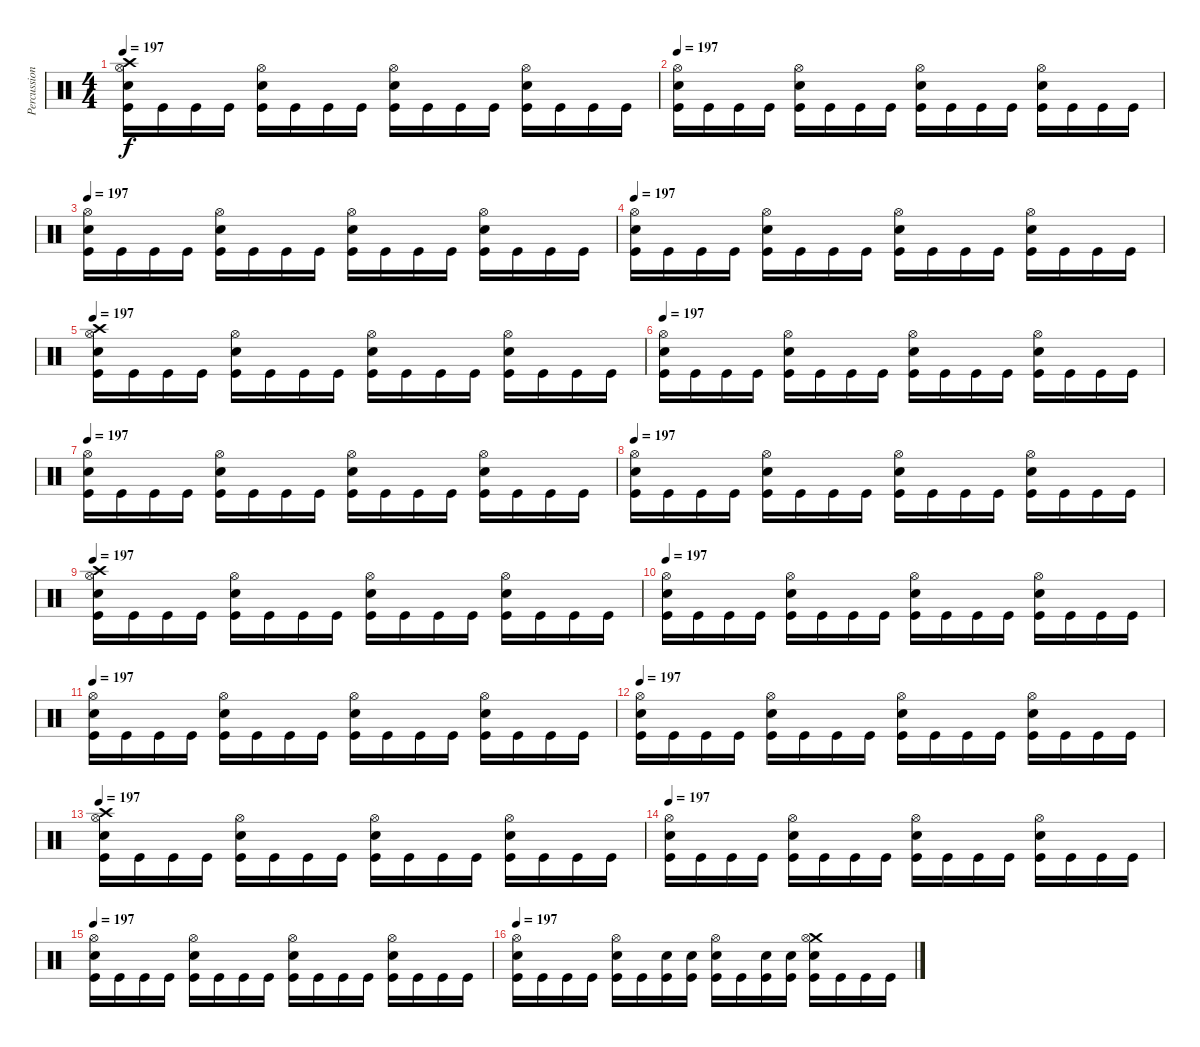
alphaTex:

\track ("Percussion" "Percussion") {instrument percussion}
\staff {score}
\articulation defaults
\ts (4 4)
\tempo 197
\clef neutral
\ks c
("Crash high (hit)" "Hi-Hat (open)" "Electric Snare (hit)" "Kick (hit)").16{dy f} "Kick (hit)".16 "Kick (hit)".16 "Kick (hit)".16 ("Hi-Hat (open)" "Electric Snare (hit)" "Kick (hit)").16 "Kick (hit)".16 "Kick (hit)".16 "Kick (hit)".16 ("Hi-Hat (open)" "Electric Snare (hit)" "Kick (hit)").16 "Kick (hit)".16 "Kick (hit)".16 "Kick (hit)".16 ("Hi-Hat (open)" "Electric Snare (hit)" "Kick (hit)").16 "Kick (hit)".16 "Kick (hit)".16 "Kick (hit)".16 |
\tempo 197
("Hi-Hat (open)" "Electric Snare (hit)" "Kick (hit)").16 "Kick (hit)".16 "Kick (hit)".16 "Kick (hit)".16 ("Hi-Hat (open)" "Electric Snare (hit)" "Kick (hit)").16 "Kick (hit)".16 "Kick (hit)".16 "Kick (hit)".16 ("Hi-Hat (open)" "Electric Snare (hit)" "Kick (hit)").16 "Kick (hit)".16 "Kick (hit)".16 "Kick (hit)".16 ("Hi-Hat (open)" "Electric Snare (hit)" "Kick (hit)").16 "Kick (hit)".16 "Kick (hit)".16 "Kick (hit)".16 |
\tempo 197
("Hi-Hat (open)" "Electric Snare (hit)" "Kick (hit)").16 "Kick (hit)".16 "Kick (hit)".16 "Kick (hit)".16 ("Hi-Hat (open)" "Electric Snare (hit)" "Kick (hit)").16 "Kick (hit)".16 "Kick (hit)".16 "Kick (hit)".16 ("Hi-Hat (open)" "Electric Snare (hit)" "Kick (hit)").16 "Kick (hit)".16 "Kick (hit)".16 "Kick (hit)".16 ("Hi-Hat (open)" "Electric Snare (hit)" "Kick (hit)").16 "Kick (hit)".16 "Kick (hit)".16 "Kick (hit)".16 |
\tempo 197
("Hi-Hat (open)" "Electric Snare (hit)" "Kick (hit)").16 "Kick (hit)".16 "Kick (hit)".16 "Kick (hit)".16 ("Hi-Hat (open)" "Electric Snare (hit)" "Kick (hit)").16 "Kick (hit)".16 "Kick (hit)".16 "Kick (hit)".16 ("Hi-Hat (open)" "Electric Snare (hit)" "Kick (hit)").16 "Kick (hit)".16 "Kick (hit)".16 "Kick (hit)".16 ("Hi-Hat (open)" "Electric Snare (hit)" "Kick (hit)").16 "Kick (hit)".16 "Kick (hit)".16 "Kick (hit)".16 |
\tempo 197
("Crash high (hit)" "Hi-Hat (open)" "Electric Snare (hit)" "Kick (hit)").16 "Kick (hit)".16 "Kick (hit)".16 "Kick (hit)".16 ("Hi-Hat (open)" "Electric Snare (hit)" "Kick (hit)").16 "Kick (hit)".16 "Kick (hit)".16 "Kick (hit)".16 ("Hi-Hat (open)" "Electric Snare (hit)" "Kick (hit)").16 "Kick (hit)".16 "Kick (hit)".16 "Kick (hit)".16 ("Hi-Hat (open)" "Electric Snare (hit)" "Kick (hit)").16 "Kick (hit)".16 "Kick (hit)".16 "Kick (hit)".16 |
\tempo 197
("Hi-Hat (open)" "Electric Snare (hit)" "Kick (hit)").16 "Kick (hit)".16 "Kick (hit)".16 "Kick (hit)".16 ("Hi-Hat (open)" "Electric Snare (hit)" "Kick (hit)").16 "Kick (hit)".16 "Kick (hit)".16 "Kick (hit)".16 ("Hi-Hat (open)" "Electric Snare (hit)" "Kick (hit)").16 "Kick (hit)".16 "Kick (hit)".16 "Kick (hit)".16 ("Hi-Hat (open)" "Electric Snare (hit)" "Kick (hit)").16 "Kick (hit)".16 "Kick (hit)".16 "Kick (hit)".16 |
\tempo 197
("Hi-Hat (open)" "Electric Snare (hit)" "Kick (hit)").16 "Kick (hit)".16 "Kick (hit)".16 "Kick (hit)".16 ("Hi-Hat (open)" "Electric Snare (hit)" "Kick (hit)").16 "Kick (hit)".16 "Kick (hit)".16 "Kick (hit)".16 ("Hi-Hat (open)" "Electric Snare (hit)" "Kick (hit)").16 "Kick (hit)".16 "Kick (hit)".16 "Kick (hit)".16 ("Hi-Hat (open)" "Electric Snare (hit)" "Kick (hit)").16 "Kick (hit)".16 "Kick (hit)".16 "Kick (hit)".16 |
\tempo 197
("Hi-Hat (open)" "Electric Snare (hit)" "Kick (hit)").16 "Kick (hit)".16 "Kick (hit)".16 "Kick (hit)".16 ("Hi-Hat (open)" "Electric Snare (hit)" "Kick (hit)").16 "Kick (hit)".16 "Kick (hit)".16 "Kick (hit)".16 ("Hi-Hat (open)" "Electric Snare (hit)" "Kick (hit)").16 "Kick (hit)".16 "Kick (hit)".16 "Kick (hit)".16 ("Hi-Hat (open)" "Electric Snare (hit)" "Kick (hit)").16 "Kick (hit)".16 "Kick (hit)".16 "Kick (hit)".16 |
\tempo 197
("Crash high (hit)" "Hi-Hat (open)" "Electric Snare (hit)" "Kick (hit)").16 "Kick (hit)".16 "Kick (hit)".16 "Kick (hit)".16 ("Hi-Hat (open)" "Electric Snare (hit)" "Kick (hit)").16 "Kick (hit)".16 "Kick (hit)".16 "Kick (hit)".16 ("Hi-Hat (open)" "Electric Snare (hit)" "Kick (hit)").16 "Kick (hit)".16 "Kick (hit)".16 "Kick (hit)".16 ("Hi-Hat (open)" "Electric Snare (hit)" "Kick (hit)").16 "Kick (hit)".16 "Kick (hit)".16 "Kick (hit)".16 |
\tempo 197
("Hi-Hat (open)" "Electric Snare (hit)" "Kick (hit)").16 "Kick (hit)".16 "Kick (hit)".16 "Kick (hit)".16 ("Hi-Hat (open)" "Electric Snare (hit)" "Kick (hit)").16 "Kick (hit)".16 "Kick (hit)".16 "Kick (hit)".16 ("Hi-Hat (open)" "Electric Snare (hit)" "Kick (hit)").16 "Kick (hit)".16 "Kick (hit)".16 "Kick (hit)".16 ("Hi-Hat (open)" "Electric Snare (hit)" "Kick (hit)").16 "Kick (hit)".16 "Kick (hit)".16 "Kick (hit)".16 |
\tempo 197
("Hi-Hat (open)" "Electric Snare (hit)" "Kick (hit)").16 "Kick (hit)".16 "Kick (hit)".16 "Kick (hit)".16 ("Hi-Hat (open)" "Electric Snare (hit)" "Kick (hit)").16 "Kick (hit)".16 "Kick (hit)".16 "Kick (hit)".16 ("Hi-Hat (open)" "Electric Snare (hit)" "Kick (hit)").16 "Kick (hit)".16 "Kick (hit)".16 "Kick (hit)".16 ("Hi-Hat (open)" "Electric Snare (hit)" "Kick (hit)").16 "Kick (hit)".16 "Kick (hit)".16 "Kick (hit)".16 |
\tempo 197
("Hi-Hat (open)" "Electric Snare (hit)" "Kick (hit)").16 "Kick (hit)".16 "Kick (hit)".16 "Kick (hit)".16 ("Hi-Hat (open)" "Electric Snare (hit)" "Kick (hit)").16 "Kick (hit)".16 "Kick (hit)".16 "Kick (hit)".16 ("Hi-Hat (open)" "Electric Snare (hit)" "Kick (hit)").16 "Kick (hit)".16 "Kick (hit)".16 "Kick (hit)".16 ("Hi-Hat (open)" "Electric Snare (hit)" "Kick (hit)").16 "Kick (hit)".16 "Kick (hit)".16 "Kick (hit)".16 |
\tempo 197
("Crash high (hit)" "Hi-Hat (open)" "Electric Snare (hit)" "Kick (hit)").16 "Kick (hit)".16 "Kick (hit)".16 "Kick (hit)".16 ("Hi-Hat (open)" "Electric Snare (hit)" "Kick (hit)").16 "Kick (hit)".16 "Kick (hit)".16 "Kick (hit)".16 ("Hi-Hat (open)" "Electric Snare (hit)" "Kick (hit)").16 "Kick (hit)".16 "Kick (hit)".16 "Kick (hit)".16 ("Hi-Hat (open)" "Electric Snare (hit)" "Kick (hit)").16 "Kick (hit)".16 "Kick (hit)".16 "Kick (hit)".16 |
\tempo 197
("Hi-Hat (open)" "Electric Snare (hit)" "Kick (hit)").16 "Kick (hit)".16 "Kick (hit)".16 "Kick (hit)".16 ("Hi-Hat (open)" "Electric Snare (hit)" "Kick (hit)").16 "Kick (hit)".16 "Kick (hit)".16 "Kick (hit)".16 ("Hi-Hat (open)" "Electric Snare (hit)" "Kick (hit)").16 "Kick (hit)".16 "Kick (hit)".16 "Kick (hit)".16 ("Hi-Hat (open)" "Electric Snare (hit)" "Kick (hit)").16 "Kick (hit)".16 "Kick (hit)".16 "Kick (hit)".16 |
\tempo 197
("Hi-Hat (open)" "Electric Snare (hit)" "Kick (hit)").16 "Kick (hit)".16 "Kick (hit)".16 "Kick (hit)".16 ("Hi-Hat (open)" "Electric Snare (hit)" "Kick (hit)").16 "Kick (hit)".16 "Kick (hit)".16 "Kick (hit)".16 ("Hi-Hat (open)" "Electric Snare (hit)" "Kick (hit)").16 "Kick (hit)".16 "Kick (hit)".16 "Kick (hit)".16 ("Hi-Hat (open)" "Electric Snare (hit)" "Kick (hit)").16 "Kick (hit)".16 "Kick (hit)".16 "Kick (hit)".16 |
\tempo 197
("Hi-Hat (open)" "Electric Snare (hit)" "Kick (hit)").16 "Kick (hit)".16 "Kick (hit)".16 "Kick (hit)".16 ("Hi-Hat (open)" "Electric Snare (hit)" "Kick (hit)").16 "Kick (hit)".16 ("Electric Snare (hit)" "Kick (hit)").16 ("Electric Snare (hit)" "Kick (hit)").16 ("Hi-Hat (open)" "Electric Snare (hit)" "Kick (hit)").16 "Kick (hit)".16 ("Electric Snare (hit)" "Kick (hit)").16 ("Electric Snare (hit)" "Kick (hit)").16 ("Crash medium (hit)" "Hi-Hat (open)" "Electric Snare (hit)" "Kick (hit)").16 "Kick (hit)".16 "Kick (hit)".16 "Kick (hit)".16
